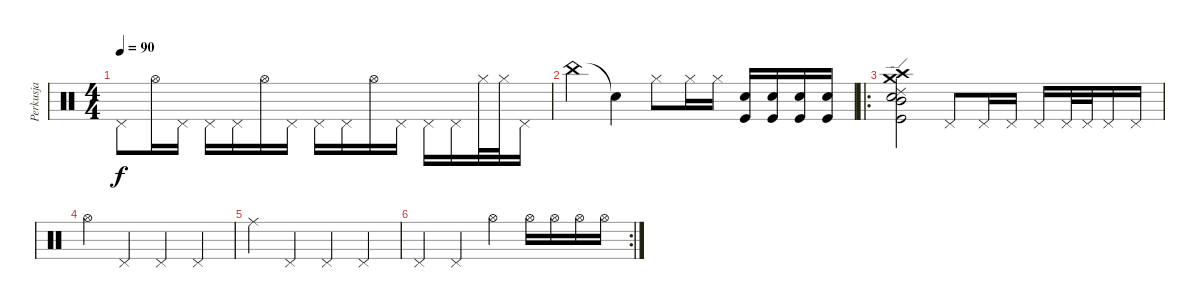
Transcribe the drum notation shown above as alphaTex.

\track ("Perkusja" "Perkusja") {instrument percussion}
\staff {score}
\articulation defaults
\ts (4 4)
\tempo 90
\clef neutral
\ks c "Pedal Hi-Hat (hit)".8{dy f} "Hi-Hat (open)".16 "Pedal Hi-Hat (hit)".16 "Pedal Hi-Hat (hit)".16 "Pedal Hi-Hat (hit)".16 "Hi-Hat (open)".16 "Pedal Hi-Hat (hit)".16 "Pedal Hi-Hat (hit)".16 "Pedal Hi-Hat (hit)".16 "Hi-Hat (open)".16 "Pedal Hi-Hat (hit)".16 "Pedal Hi-Hat (hit)".16 "Pedal Hi-Hat (hit)".16 "Hi-Hat (closed)".32 "Hi-Hat (closed)".32 "Pedal Hi-Hat (hit)".16
|
"China (hit)".4 "Snare (hit)"{t}.4 "Hi-Hat (closed)".8 "Hi-Hat (closed)".16 "Hi-Hat (closed)".16 ("Electric Snare (hit)" "Kick (hit)").16 ("Electric Snare (hit)" "Kick (hit)").16 ("Electric Snare (hit)" "Kick (hit)").16 ("Electric Snare (hit)" "Kick (hit)").16 |
\ro
("Ride (edge) 2" "Crash medium (hit)" "Crash high (hit)" "Mid Tom (hit)" "Electric Snare (hit)" "Kick (hit)").2 "Pedal Hi-Hat (hit)".8 "Pedal Hi-Hat (hit)".16 "Pedal Hi-Hat (hit)".16 "Pedal Hi-Hat (hit)".16 "Pedal Hi-Hat (hit)".32 "Pedal Hi-Hat (hit)".32 "Pedal Hi-Hat (hit)".16 "Pedal Hi-Hat (hit)".16 |
"Hi-Hat (open)".4 "Pedal Hi-Hat (hit)".4 "Pedal Hi-Hat (hit)".4 "Pedal Hi-Hat (hit)".4 |
"Ride (middle)".4 "Pedal Hi-Hat (hit)".4 "Pedal Hi-Hat (hit)".4 "Pedal Hi-Hat (hit)".4 |
\rc 2 "Pedal Hi-Hat (hit)".4 "Pedal Hi-Hat (hit)".4 "Hi-Hat (open)".4 "Hi-Hat (open)".16 "Hi-Hat (open)".16 "Hi-Hat (open)".16 "Hi-Hat (open)".16
